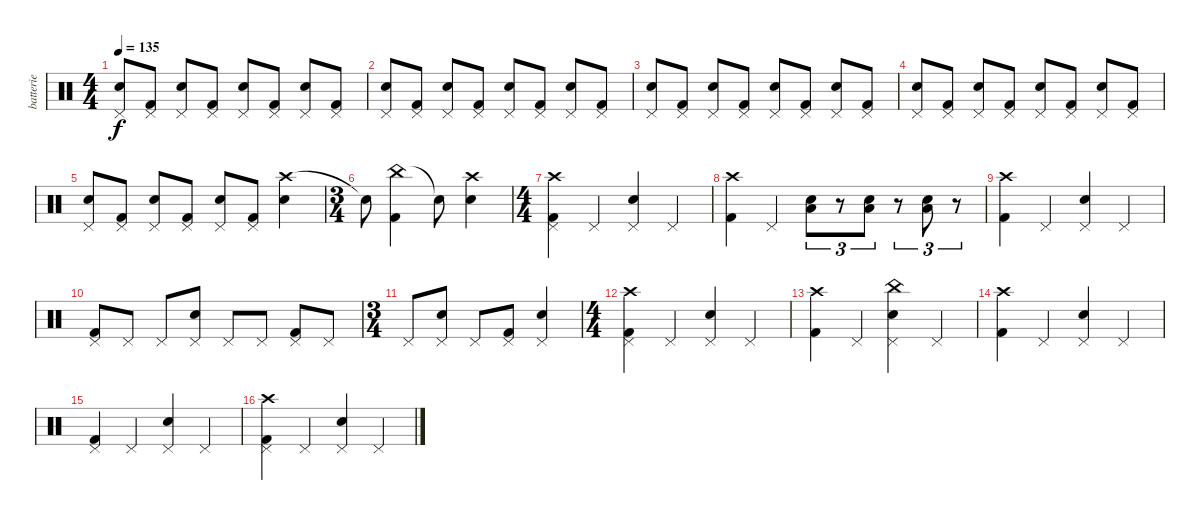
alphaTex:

\track ("batterie" "batterie") {instrument percussion}
\staff {score}
\articulation defaults
\ts (4 4)
\tempo 135
\clef neutral
\ks c
("Snare (hit) 2" "Pedal Hi-Hat (hit)").8{dy f} ("Kick (hit) 2" "Pedal Hi-Hat (hit)").8 ("Snare (hit) 2" "Pedal Hi-Hat (hit)").8 ("Kick (hit) 2" "Pedal Hi-Hat (hit)").8 ("Snare (hit) 2" "Pedal Hi-Hat (hit)").8 ("Kick (hit) 2" "Pedal Hi-Hat (hit)").8 ("Snare (hit) 2" "Pedal Hi-Hat (hit)").8 ("Kick (hit) 2" "Pedal Hi-Hat (hit)").8 |
("Snare (hit) 2" "Pedal Hi-Hat (hit)").8 ("Kick (hit) 2" "Pedal Hi-Hat (hit)").8 ("Snare (hit) 2" "Pedal Hi-Hat (hit)").8 ("Kick (hit) 2" "Pedal Hi-Hat (hit)").8 ("Snare (hit) 2" "Pedal Hi-Hat (hit)").8 ("Kick (hit) 2" "Pedal Hi-Hat (hit)").8 ("Snare (hit) 2" "Pedal Hi-Hat (hit)").8 ("Kick (hit) 2" "Pedal Hi-Hat (hit)").8 |
("Snare (hit) 2" "Pedal Hi-Hat (hit)").8 ("Kick (hit) 2" "Pedal Hi-Hat (hit)").8 ("Snare (hit) 2" "Pedal Hi-Hat (hit)").8 ("Kick (hit) 2" "Pedal Hi-Hat (hit)").8 ("Snare (hit) 2" "Pedal Hi-Hat (hit)").8 ("Kick (hit) 2" "Pedal Hi-Hat (hit)").8 ("Snare (hit) 2" "Pedal Hi-Hat (hit)").8 ("Kick (hit) 2" "Pedal Hi-Hat (hit)").8 |
("Snare (hit) 2" "Pedal Hi-Hat (hit)").8 ("Kick (hit) 2" "Pedal Hi-Hat (hit)").8 ("Snare (hit) 2" "Pedal Hi-Hat (hit)").8 ("Kick (hit) 2" "Pedal Hi-Hat (hit)").8 ("Snare (hit) 2" "Pedal Hi-Hat (hit)").8 ("Kick (hit) 2" "Pedal Hi-Hat (hit)").8 ("Snare (hit) 2" "Pedal Hi-Hat (hit)").8 ("Kick (hit) 2" "Pedal Hi-Hat (hit)").8 |
("Snare (hit) 2" "Pedal Hi-Hat (hit)").8 ("Kick (hit) 2" "Pedal Hi-Hat (hit)").8 ("Snare (hit) 2" "Pedal Hi-Hat (hit)").8 ("Kick (hit) 2" "Pedal Hi-Hat (hit)").8 ("Snare (hit) 2" "Pedal Hi-Hat (hit)").8 ("Kick (hit) 2" "Pedal Hi-Hat (hit)").8 ("Crash high (hit)" "Snare (hit) 2").4 |
\ts (3 4)
"Snare (hit)"{t}.8 ("China (hit)" "Kick (hit) 2").4 "Snare (hit)"{t}.8 ("Crash high (hit)" "Snare (hit) 2").4 |
\ts (4 4)
("Crash high (hit)" "Kick (hit) 2" "Pedal Hi-Hat (hit)").4 "Pedal Hi-Hat (hit)".4 ("Snare (hit) 2" "Pedal Hi-Hat (hit)").4 "Pedal Hi-Hat (hit)".4 |
("Crash high (hit)" "Kick (hit) 2").4 "Pedal Hi-Hat (hit)".4 ("Low Tom (hit)" "Snare (hit) 2").8{tu (3 2)} r.8{tu (3 2)} ("Low Tom (hit)" "Snare (hit) 2").8{tu (3 2)} r.8{tu (3 2)} ("Low Tom (hit)" "Snare (hit) 2").8{tu (3 2)} r.8{tu (3 2)} |
("Crash high (hit)" "Kick (hit) 2").4 "Pedal Hi-Hat (hit)".4 ("Snare (hit) 2" "Pedal Hi-Hat (hit)").4 "Pedal Hi-Hat (hit)".4 |
("Kick (hit) 2" "Pedal Hi-Hat (hit)").8 "Pedal Hi-Hat (hit)".8 "Pedal Hi-Hat (hit)".8 ("Snare (hit) 2" "Pedal Hi-Hat (hit)").8 "Pedal Hi-Hat (hit)".8 "Pedal Hi-Hat (hit)".8 ("Kick (hit) 2" "Pedal Hi-Hat (hit)").8 "Pedal Hi-Hat (hit)".8 |
\ts (3 4)
"Pedal Hi-Hat (hit)".8 ("Snare (hit) 2" "Pedal Hi-Hat (hit)").8 "Pedal Hi-Hat (hit)".8 ("Kick (hit) 2" "Pedal Hi-Hat (hit)").8 ("Snare (hit) 2" "Pedal Hi-Hat (hit)").4 |
\ts (4 4)
("Crash high (hit)" "Kick (hit) 2" "Pedal Hi-Hat (hit)").4 "Pedal Hi-Hat (hit)".4 ("Snare (hit) 2" "Pedal Hi-Hat (hit)").4 "Pedal Hi-Hat (hit)".4 |
("Crash high (hit)" "Kick (hit) 2").4 "Pedal Hi-Hat (hit)".4 ("China (hit)" "Snare (hit) 2" "Pedal Hi-Hat (hit)").4 "Pedal Hi-Hat (hit)".4 |
("Crash high (hit)" "Kick (hit) 2").4 "Pedal Hi-Hat (hit)".4 ("Snare (hit) 2" "Pedal Hi-Hat (hit)").4 "Pedal Hi-Hat (hit)".4 |
("Kick (hit) 2" "Pedal Hi-Hat (hit)").4 "Pedal Hi-Hat (hit)".4 ("Snare (hit) 2" "Pedal Hi-Hat (hit)").4 "Pedal Hi-Hat (hit)".4 |
("Crash high (hit)" "Kick (hit) 2" "Pedal Hi-Hat (hit)").4 "Pedal Hi-Hat (hit)".4 ("Snare (hit) 2" "Pedal Hi-Hat (hit)").4 "Pedal Hi-Hat (hit)".4
